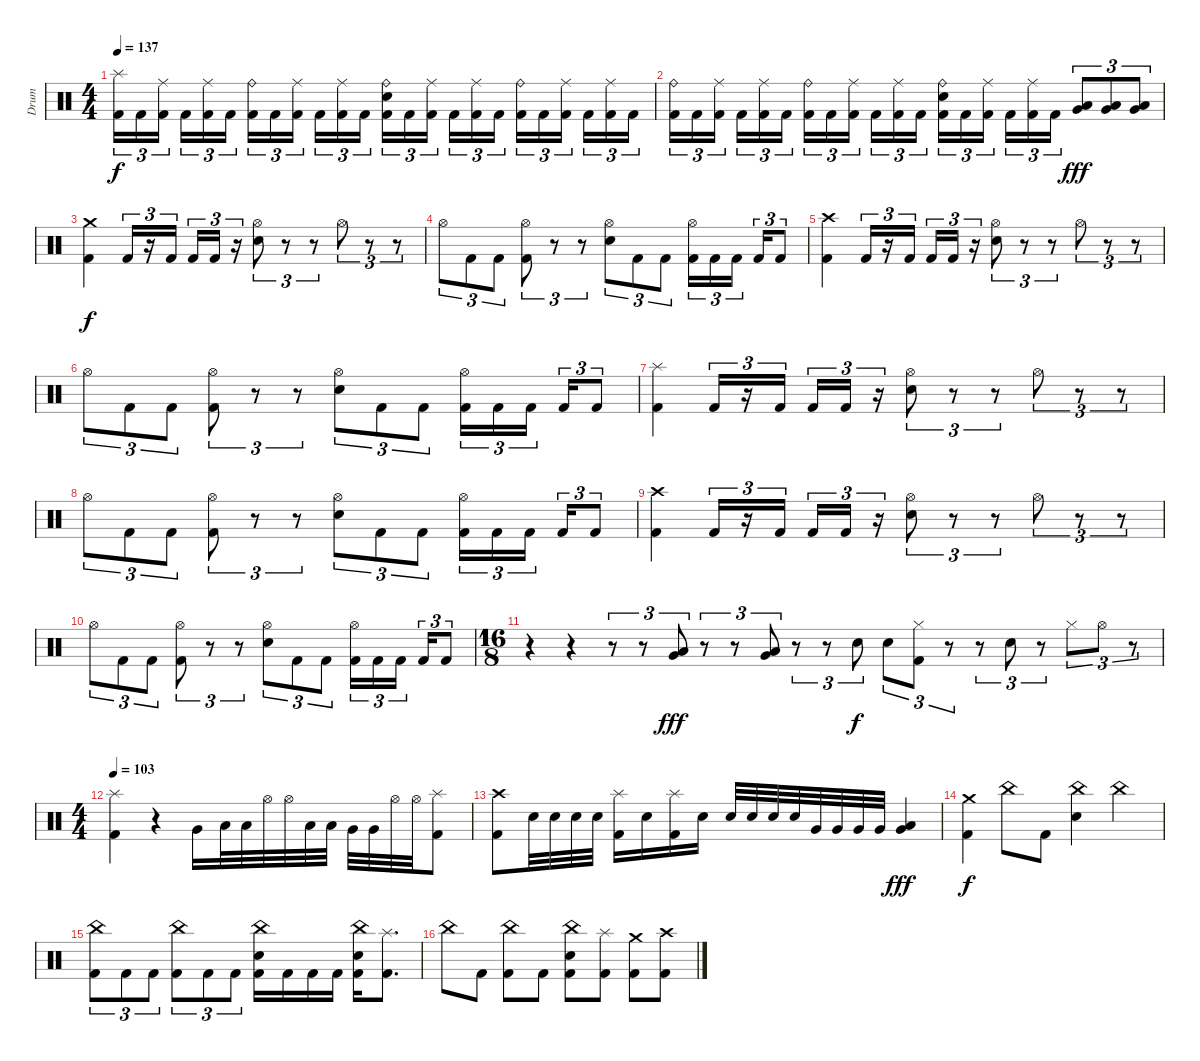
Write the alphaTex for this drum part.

\track ("Drum" "Drum") {instrument percussion}
\staff {score}
\articulation defaults
\ts (4 4)
\tempo 137
\clef neutral
\ks c
("Splash (hit)" "Kick (hit) 2").16{tu (3 2) dy f} "Kick (hit) 2".16{tu (3 2)} ("Ride (middle)" "Kick (hit) 2").16{tu (3 2) beam splitsecondary} "Kick (hit) 2".16{tu (3 2)} ("Ride (middle)" "Kick (hit) 2").16{tu (3 2)} "Kick (hit) 2".16{tu (3 2)} ("Ride (bell)" "Kick (hit) 2").16{tu (3 2)} "Kick (hit) 2".16{tu (3 2)} ("Ride (middle)" "Kick (hit) 2").16{tu (3 2) beam splitsecondary} "Kick (hit) 2".16{tu (3 2)} ("Ride (middle)" "Kick (hit) 2").16{tu (3 2)} "Kick (hit) 2".16{tu (3 2)} ("Ride (bell)" "Electric Snare (hit)" "Kick (hit) 2").16{tu (3 2)} "Kick (hit) 2".16{tu (3 2)} ("Ride (middle)" "Kick (hit) 2").16{tu (3 2) beam splitsecondary} "Kick (hit) 2".16{tu (3 2)} ("Ride (middle)" "Kick (hit) 2").16{tu (3 2)} "Kick (hit) 2".16{tu (3 2)} ("Ride (bell)" "Kick (hit) 2").16{tu (3 2)} "Kick (hit) 2".16{tu (3 2)} ("Ride (middle)" "Kick (hit) 2").16{tu (3 2) beam splitsecondary} "Kick (hit) 2".16{tu (3 2)} ("Ride (middle)" "Kick (hit) 2").16{tu (3 2)} "Kick (hit) 2".16{tu (3 2)} |
("Ride (bell)" "Kick (hit) 2").16{tu (3 2)} "Kick (hit) 2".16{tu (3 2)} ("Ride (middle)" "Kick (hit) 2").16{tu (3 2) beam splitsecondary} "Kick (hit) 2".16{tu (3 2)} ("Ride (middle)" "Kick (hit) 2").16{tu (3 2)} "Kick (hit) 2".16{tu (3 2)} ("Ride (bell)" "Kick (hit) 2").16{tu (3 2)} "Kick (hit) 2".16{tu (3 2)} ("Ride (middle)" "Kick (hit) 2").16{tu (3 2) beam splitsecondary} "Kick (hit) 2".16{tu (3 2)} ("Ride (middle)" "Kick (hit) 2").16{tu (3 2)} "Kick (hit) 2".16{tu (3 2)} ("Ride (bell)" "Electric Snare (hit)" "Kick (hit) 2").16{tu (3 2)} "Kick (hit) 2".16{tu (3 2)} ("Ride (middle)" "Kick (hit) 2").16{tu (3 2) beam splitsecondary} "Kick (hit) 2".16{tu (3 2)} ("Ride (middle)" "Kick (hit) 2").16{tu (3 2)} "Kick (hit) 2".16{tu (3 2)} ("Very Low Tom (hit)" "Low Floor Tom (hit)").8{tu (3 2) bd 60 dy fff} ("Very Low Tom (hit)" "Low Floor Tom (hit)").8{tu (3 2) bd 60} ("Very Low Tom (hit)" "Low Floor Tom (hit)").8{tu (3 2) bd 60} |
("Crash medium (hit)" "Kick (hit) 2").4{dy f} "Kick (hit) 2".16{tu (3 2)} r.16{tu (3 2)} "Kick (hit) 2".16{tu (3 2) beam splitsecondary} "Kick (hit) 2".16{tu (3 2)} "Kick (hit) 2".16{tu (3 2)} r.16{tu (3 2)} ("Hi-Hat (open)" "Electric Snare (hit)").8{tu (3 2)} r.8{tu (3 2)} r.8{tu (3 2)} "Hi-Hat (open)".8{tu (3 2)} r.8{tu (3 2)} r.8{tu (3 2)} |
"Hi-Hat (open)".8{tu (3 2)} "Kick (hit) 2".8{tu (3 2)} "Kick (hit) 2".8{tu (3 2)} ("Hi-Hat (open)" "Kick (hit) 2").8{tu (3 2)} r.8{tu (3 2)} r.8{tu (3 2)} ("Hi-Hat (open)" "Electric Snare (hit)").8{tu (3 2)} "Kick (hit) 2".8{tu (3 2)} "Kick (hit) 2".8{tu (3 2)} ("Hi-Hat (open)" "Kick (hit) 2").16{tu (3 2)} "Kick (hit) 2".16{tu (3 2)} "Kick (hit) 2".16{tu (3 2) beam splitsecondary} "Kick (hit) 2".16{tu (3 2)} "Kick (hit) 2".8{tu (3 2)} |
("Crash high (hit)" "Kick (hit) 2").4 "Kick (hit) 2".16{tu (3 2)} r.16{tu (3 2)} "Kick (hit) 2".16{tu (3 2) beam splitsecondary} "Kick (hit) 2".16{tu (3 2)} "Kick (hit) 2".16{tu (3 2)} r.16{tu (3 2)} ("Hi-Hat (open)" "Electric Snare (hit)").8{tu (3 2)} r.8{tu (3 2)} r.8{tu (3 2)} "Hi-Hat (open)".8{tu (3 2)} r.8{tu (3 2)} r.8{tu (3 2)} |
"Hi-Hat (open)".8{tu (3 2)} "Kick (hit) 2".8{tu (3 2)} "Kick (hit) 2".8{tu (3 2)} ("Hi-Hat (open)" "Kick (hit) 2").8{tu (3 2)} r.8{tu (3 2)} r.8{tu (3 2)} ("Hi-Hat (open)" "Electric Snare (hit)").8{tu (3 2)} "Kick (hit) 2".8{tu (3 2)} "Kick (hit) 2".8{tu (3 2)} ("Hi-Hat (open)" "Kick (hit) 2").16{tu (3 2)} "Kick (hit) 2".16{tu (3 2)} "Kick (hit) 2".16{tu (3 2) beam splitsecondary} "Kick (hit) 2".16{tu (3 2)} "Kick (hit) 2".8{tu (3 2)} |
("Splash (hit)" "Kick (hit) 2").4 "Kick (hit) 2".16{tu (3 2)} r.16{tu (3 2)} "Kick (hit) 2".16{tu (3 2) beam splitsecondary} "Kick (hit) 2".16{tu (3 2)} "Kick (hit) 2".16{tu (3 2)} r.16{tu (3 2)} ("Hi-Hat (open)" "Electric Snare (hit)").8{tu (3 2)} r.8{tu (3 2)} r.8{tu (3 2)} "Hi-Hat (open)".8{tu (3 2)} r.8{tu (3 2)} r.8{tu (3 2)} |
"Hi-Hat (open)".8{tu (3 2)} "Kick (hit) 2".8{tu (3 2)} "Kick (hit) 2".8{tu (3 2)} ("Hi-Hat (open)" "Kick (hit) 2").8{tu (3 2)} r.8{tu (3 2)} r.8{tu (3 2)} ("Hi-Hat (open)" "Electric Snare (hit)").8{tu (3 2)} "Kick (hit) 2".8{tu (3 2)} "Kick (hit) 2".8{tu (3 2)} ("Hi-Hat (open)" "Kick (hit) 2").16{tu (3 2)} "Kick (hit) 2".16{tu (3 2)} "Kick (hit) 2".16{tu (3 2) beam splitsecondary} "Kick (hit) 2".16{tu (3 2)} "Kick (hit) 2".8{tu (3 2)} |
("Crash high (hit)" "Kick (hit) 2").4 "Kick (hit) 2".16{tu (3 2)} r.16{tu (3 2)} "Kick (hit) 2".16{tu (3 2) beam splitsecondary} "Kick (hit) 2".16{tu (3 2)} "Kick (hit) 2".16{tu (3 2)} r.16{tu (3 2)} ("Hi-Hat (open)" "Electric Snare (hit)").8{tu (3 2)} r.8{tu (3 2)} r.8{tu (3 2)} "Hi-Hat (open)".8{tu (3 2)} r.8{tu (3 2)} r.8{tu (3 2)} |
"Hi-Hat (open)".8{tu (3 2)} "Kick (hit) 2".8{tu (3 2)} "Kick (hit) 2".8{tu (3 2)} ("Hi-Hat (open)" "Kick (hit) 2").8{tu (3 2)} r.8{tu (3 2)} r.8{tu (3 2)} ("Hi-Hat (open)" "Electric Snare (hit)").8{tu (3 2)} "Kick (hit) 2".8{tu (3 2)} "Kick (hit) 2".8{tu (3 2)} ("Hi-Hat (open)" "Kick (hit) 2").16{tu (3 2)} "Kick (hit) 2".16{tu (3 2)} "Kick (hit) 2".16{tu (3 2) beam splitsecondary} "Kick (hit) 2".16{tu (3 2)} "Kick (hit) 2".8{tu (3 2)} |
\ts (16 8)
r.4 r.4 r.8{tu (3 2)} r.8{tu (3 2)} ("Very Low Tom (hit)" "Low Floor Tom (hit)").8{tu (3 2) dy fff} r.8{tu (3 2)} r.8{tu (3 2)} ("Very Low Tom (hit)" "Low Floor Tom (hit)").8{tu (3 2)} r.8{tu (3 2)} r.8{tu (3 2)} "Electric Snare (hit)".8{tu (3 2) dy f} "Electric Snare (hit)".8{tu (3 2)} ("Hi-Hat (closed)" "Kick (hit) 2").8{tu (3 2)} r.8{tu (3 2)} r.8{tu (3 2)} "Electric Snare (hit)".8{tu (3 2)} r.8{tu (3 2)} "Hi-Hat (closed)".8{tu (3 2)} "Hi-Hat (open)".8{tu (3 2)} r.8{tu (3 2)} |
\ts (4 4)
\tempo 103
("Splash (hit)" "Kick (hit) 2").4 r.4 "Very Low Tom (hit)".16 "Low Floor Tom (hit)".32 "Low Floor Tom (hit)".32 "Hi-Hat (open)".32 "Hi-Hat (open)".32 "Low Tom (hit)".32 "Low Tom (hit)".32 "Very Low Tom (hit)".32 "Very Low Tom (hit)".32 "Hi-Hat (open)".32 "Hi-Hat (open)".32 ("Splash (hit)" "Kick (hit) 2").8 |
("Crash high (hit)" "Kick (hit) 2").8 "Electric Snare (hit)".32 "Electric Snare (hit)".32 "Electric Snare (hit)".32 "Electric Snare (hit)".32 ("Splash (hit)" "Kick (hit) 2").16 "Electric Snare (hit)".16 ("Splash (hit)" "Kick (hit) 2").16 "Electric Snare (hit)".16 "Electric Snare (hit)".32 "Electric Snare (hit)".32 "Electric Snare (hit)".32 "Electric Snare (hit)".32 "Very Low Tom (hit)".32 "Very Low Tom (hit)".32 "Very Low Tom (hit)".32 "Very Low Tom (hit)".32 ("Very Low Tom (hit)" "Low Floor Tom (hit)").4{bd 60 dy fff} |
("Crash medium (hit)" "Kick (hit) 2").4{dy f} "China (hit)".8 "Kick (hit) 2".8 ("China (hit)" "Electric Snare (hit)").4 "China (hit)".4 |
("China (hit)" "Kick (hit) 2").8{tu (3 2)} "Kick (hit) 2".8{tu (3 2)} "Kick (hit) 2".8{tu (3 2)} ("China (hit)" "Kick (hit) 2").8{tu (3 2)} "Kick (hit) 2".8{tu (3 2)} "Kick (hit) 2".8{tu (3 2)} ("China (hit)" "Electric Snare (hit)" "Kick (hit) 2").16 "Kick (hit) 2".16 "Kick (hit) 2".16 "Kick (hit) 2".16 ("China (hit)" "Electric Snare (hit)" "Kick (hit) 2").16 ("Splash (hit)" "Kick (hit) 2").8{d} |
"China (hit)".8 "Kick (hit) 2".8 ("China (hit)" "Kick (hit) 2").8 "Kick (hit) 2".8 ("China (hit)" "Electric Snare (hit)" "Kick (hit) 2").8 ("Splash (hit)" "Kick (hit) 2").8 ("Crash medium (hit)" "Kick (hit) 2").8 ("Crash high (hit)" "Kick (hit) 2").8
